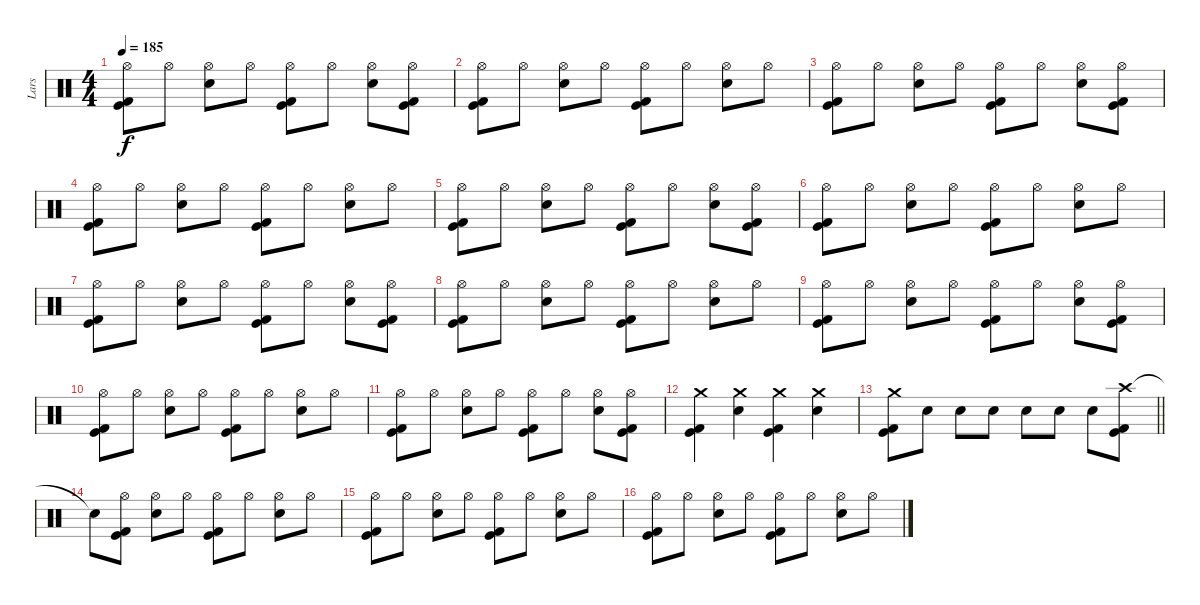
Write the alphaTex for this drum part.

\track ("Lars" "Lars") {instrument percussion}
\staff {score}
\articulation defaults
\ts (4 4)
\tempo 185
\clef neutral
\ks c
("Hi-Hat (open)" "Kick (hit)" "Kick (hit) 2").8{dy f} "Hi-Hat (open)".8 ("Hi-Hat (open)" "Electric Snare (hit)").8 "Hi-Hat (open)".8 ("Hi-Hat (open)" "Kick (hit)" "Kick (hit) 2").8 "Hi-Hat (open)".8 ("Hi-Hat (open)" "Electric Snare (hit)").8 ("Hi-Hat (open)" "Kick (hit)" "Kick (hit) 2").8 |
("Hi-Hat (open)" "Kick (hit)" "Kick (hit) 2").8 "Hi-Hat (open)".8 ("Hi-Hat (open)" "Electric Snare (hit)").8 "Hi-Hat (open)".8 ("Hi-Hat (open)" "Kick (hit)" "Kick (hit) 2").8 "Hi-Hat (open)".8 ("Hi-Hat (open)" "Electric Snare (hit)").8 "Hi-Hat (open)".8 |
("Hi-Hat (open)" "Kick (hit)" "Kick (hit) 2").8 "Hi-Hat (open)".8 ("Hi-Hat (open)" "Electric Snare (hit)").8 "Hi-Hat (open)".8 ("Hi-Hat (open)" "Kick (hit)" "Kick (hit) 2").8 "Hi-Hat (open)".8 ("Hi-Hat (open)" "Electric Snare (hit)").8 ("Hi-Hat (open)" "Kick (hit)" "Kick (hit) 2").8 |
("Hi-Hat (open)" "Kick (hit)" "Kick (hit) 2").8 "Hi-Hat (open)".8 ("Hi-Hat (open)" "Electric Snare (hit)").8 "Hi-Hat (open)".8 ("Hi-Hat (open)" "Kick (hit)" "Kick (hit) 2").8 "Hi-Hat (open)".8 ("Hi-Hat (open)" "Electric Snare (hit)").8 "Hi-Hat (open)".8 |
("Hi-Hat (open)" "Kick (hit)" "Kick (hit) 2").8 "Hi-Hat (open)".8 ("Hi-Hat (open)" "Electric Snare (hit)").8 "Hi-Hat (open)".8 ("Hi-Hat (open)" "Kick (hit)" "Kick (hit) 2").8 "Hi-Hat (open)".8 ("Hi-Hat (open)" "Electric Snare (hit)").8 ("Hi-Hat (open)" "Kick (hit)" "Kick (hit) 2").8 |
("Hi-Hat (open)" "Kick (hit)" "Kick (hit) 2").8 "Hi-Hat (open)".8 ("Hi-Hat (open)" "Electric Snare (hit)").8 "Hi-Hat (open)".8 ("Hi-Hat (open)" "Kick (hit)" "Kick (hit) 2").8 "Hi-Hat (open)".8 ("Hi-Hat (open)" "Electric Snare (hit)").8 "Hi-Hat (open)".8 |
("Hi-Hat (open)" "Kick (hit)" "Kick (hit) 2").8 "Hi-Hat (open)".8 ("Hi-Hat (open)" "Electric Snare (hit)").8 "Hi-Hat (open)".8 ("Hi-Hat (open)" "Kick (hit)" "Kick (hit) 2").8 "Hi-Hat (open)".8 ("Hi-Hat (open)" "Electric Snare (hit)").8 ("Hi-Hat (open)" "Kick (hit)" "Kick (hit) 2").8 |
("Hi-Hat (open)" "Kick (hit)" "Kick (hit) 2").8 "Hi-Hat (open)".8 ("Hi-Hat (open)" "Electric Snare (hit)").8 "Hi-Hat (open)".8 ("Hi-Hat (open)" "Kick (hit)" "Kick (hit) 2").8 "Hi-Hat (open)".8 ("Hi-Hat (open)" "Electric Snare (hit)").8 "Hi-Hat (open)".8 |
("Hi-Hat (open)" "Kick (hit)" "Kick (hit) 2").8 "Hi-Hat (open)".8 ("Hi-Hat (open)" "Electric Snare (hit)").8 "Hi-Hat (open)".8 ("Hi-Hat (open)" "Kick (hit)" "Kick (hit) 2").8 "Hi-Hat (open)".8 ("Hi-Hat (open)" "Electric Snare (hit)").8 ("Hi-Hat (open)" "Kick (hit)" "Kick (hit) 2").8 |
("Hi-Hat (open)" "Kick (hit)" "Kick (hit) 2").8 "Hi-Hat (open)".8 ("Hi-Hat (open)" "Electric Snare (hit)").8 "Hi-Hat (open)".8 ("Hi-Hat (open)" "Kick (hit)" "Kick (hit) 2").8 "Hi-Hat (open)".8 ("Hi-Hat (open)" "Electric Snare (hit)").8 "Hi-Hat (open)".8 |
("Hi-Hat (open)" "Kick (hit)" "Kick (hit) 2").8 "Hi-Hat (open)".8 ("Hi-Hat (open)" "Electric Snare (hit)").8 "Hi-Hat (open)".8 ("Hi-Hat (open)" "Kick (hit)" "Kick (hit) 2").8 "Hi-Hat (open)".8 ("Hi-Hat (open)" "Electric Snare (hit)").8 ("Hi-Hat (open)" "Kick (hit)" "Kick (hit) 2").8 |
("Crash medium (hit)" "Kick (hit)" "Kick (hit) 2").4 ("Crash medium (hit)" "Electric Snare (hit)").4 ("Crash medium (hit)" "Kick (hit)" "Kick (hit) 2").4 ("Crash medium (hit)" "Electric Snare (hit)").4 |
\barLineRight lightlight
("Crash medium (hit)" "Kick (hit)" "Kick (hit) 2").8 "Electric Snare (hit)".8 "Electric Snare (hit)".8 "Electric Snare (hit)".8 "Electric Snare (hit)".8 "Electric Snare (hit)".8 "Electric Snare (hit)".8 ("Crash high (hit)" "Kick (hit)" "Kick (hit) 2").8 |
\section ("" "")
"Snare (hit)"{t}.8 ("Hi-Hat (open)" "Kick (hit)" "Kick (hit) 2").8 ("Hi-Hat (open)" "Electric Snare (hit)").8 "Hi-Hat (open)".8 ("Hi-Hat (open)" "Kick (hit)" "Kick (hit) 2").8 "Hi-Hat (open)".8 ("Hi-Hat (open)" "Electric Snare (hit)").8 "Hi-Hat (open)".8 |
("Hi-Hat (open)" "Kick (hit)" "Kick (hit) 2").8 "Hi-Hat (open)".8 ("Hi-Hat (open)" "Electric Snare (hit)").8 "Hi-Hat (open)".8 ("Hi-Hat (open)" "Kick (hit)" "Kick (hit) 2").8 "Hi-Hat (open)".8 ("Hi-Hat (open)" "Electric Snare (hit)").8 "Hi-Hat (open)".8 |
("Hi-Hat (open)" "Kick (hit)" "Kick (hit) 2").8 "Hi-Hat (open)".8 ("Hi-Hat (open)" "Electric Snare (hit)").8 "Hi-Hat (open)".8 ("Hi-Hat (open)" "Kick (hit)" "Kick (hit) 2").8 "Hi-Hat (open)".8 ("Hi-Hat (open)" "Electric Snare (hit)").8 "Hi-Hat (open)".8
